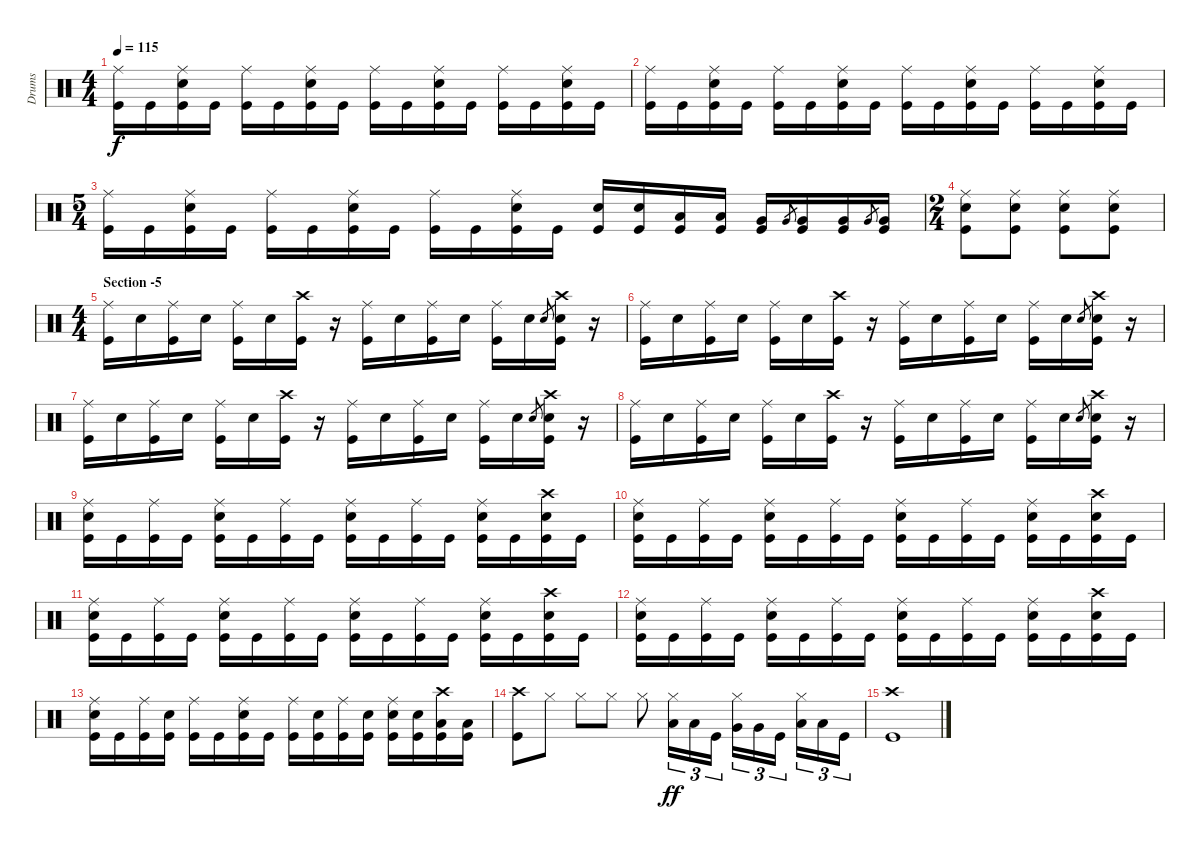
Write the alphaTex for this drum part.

\track ("Drums" "Drums") {instrument percussion}
\staff {score}
\articulation defaults
\ts (4 4)
\tempo 115
\clef neutral
\ks c
("Ride (middle)" "Kick (hit)").16{dy f} "Kick (hit)".16 ("Ride (middle)" "Electric Snare (hit)" "Kick (hit)").16 "Kick (hit)".16 ("Ride (middle)" "Kick (hit)").16 "Kick (hit)".16 ("Ride (middle)" "Electric Snare (hit)" "Kick (hit)").16 "Kick (hit)".16 ("Ride (middle)" "Kick (hit)").16 "Kick (hit)".16 ("Ride (middle)" "Electric Snare (hit)" "Kick (hit)").16 "Kick (hit)".16 ("Ride (middle)" "Kick (hit)").16 "Kick (hit)".16 ("Ride (middle)" "Electric Snare (hit)" "Kick (hit)").16 "Kick (hit)".16 |
("Ride (middle)" "Kick (hit)").16 "Kick (hit)".16 ("Ride (middle)" "Electric Snare (hit)" "Kick (hit)").16 "Kick (hit)".16 ("Ride (middle)" "Kick (hit)").16 "Kick (hit)".16 ("Ride (middle)" "Electric Snare (hit)" "Kick (hit)").16 "Kick (hit)".16 ("Ride (middle)" "Kick (hit)").16 "Kick (hit)".16 ("Ride (middle)" "Electric Snare (hit)" "Kick (hit)").16 "Kick (hit)".16 ("Ride (middle)" "Kick (hit)").16 "Kick (hit)".16 ("Ride (middle)" "Electric Snare (hit)" "Kick (hit)").16 "Kick (hit)".16 |
\ts (5 4)
("Ride (middle)" "Kick (hit)").16 "Kick (hit)".16 ("Ride (middle)" "Electric Snare (hit)" "Kick (hit)").16 "Kick (hit)".16 ("Ride (middle)" "Kick (hit)").16 "Kick (hit)".16 ("Ride (middle)" "Electric Snare (hit)" "Kick (hit)").16 "Kick (hit)".16 ("Ride (middle)" "Kick (hit)").16 "Kick (hit)".16 ("Ride (middle)" "Electric Snare (hit)" "Kick (hit)").16 "Kick (hit)".16 ("Electric Snare (hit)" "Kick (hit)").16 ("Electric Snare (hit)" "Kick (hit)").16 ("Low Tom (hit)" "Kick (hit)").16 ("Low Tom (hit)" "Kick (hit)").16 ("Very Low Tom (hit)" "Kick (hit)").16 "Very Low Tom (hit)".8{gr} ("Very Low Tom (hit)" "Kick (hit)").16 ("Very Low Tom (hit)" "Kick (hit)").16 "Very Low Tom (hit)".8{gr} ("Very Low Tom (hit)" "Kick (hit)").16 |
\ts (2 4)
("Ride (middle)" "Electric Snare (hit)" "Kick (hit)").8 ("Ride (middle)" "Electric Snare (hit)" "Kick (hit)").8 ("Ride (middle)" "Electric Snare (hit)" "Kick (hit)").8 ("Ride (middle)" "Electric Snare (hit)" "Kick (hit)").8 |
\ts (4 4)
\section ("" "Section -5")
("Ride (middle)" "Kick (hit)").16 "Electric Snare (hit)".16 ("Ride (middle)" "Kick (hit)").16 "Electric Snare (hit)".16 ("Ride (middle)" "Kick (hit)").16 "Electric Snare (hit)".16 ("Crash high (hit)" "Kick (hit)").16 r.16 ("Ride (middle)" "Kick (hit)").16 "Electric Snare (hit)".16 ("Ride (middle)" "Kick (hit)").16 "Electric Snare (hit)".16 ("Ride (middle)" "Kick (hit)").16 "Electric Snare (hit)".16 "Electric Snare (hit)".8{gr} ("Crash high (hit)" "Electric Snare (hit)" "Kick (hit)").16 r.16 |
("Ride (middle)" "Kick (hit)").16 "Electric Snare (hit)".16 ("Ride (middle)" "Kick (hit)").16 "Electric Snare (hit)".16 ("Ride (middle)" "Kick (hit)").16 "Electric Snare (hit)".16 ("Crash high (hit)" "Kick (hit)").16 r.16 ("Ride (middle)" "Kick (hit)").16 "Electric Snare (hit)".16 ("Ride (middle)" "Kick (hit)").16 "Electric Snare (hit)".16 ("Ride (middle)" "Kick (hit)").16 "Electric Snare (hit)".16 "Electric Snare (hit)".8{gr} ("Crash high (hit)" "Electric Snare (hit)" "Kick (hit)").16 r.16 |
("Ride (middle)" "Kick (hit)").16 "Electric Snare (hit)".16 ("Ride (middle)" "Kick (hit)").16 "Electric Snare (hit)".16 ("Ride (middle)" "Kick (hit)").16 "Electric Snare (hit)".16 ("Crash high (hit)" "Kick (hit)").16 r.16 ("Ride (middle)" "Kick (hit)").16 "Electric Snare (hit)".16 ("Ride (middle)" "Kick (hit)").16 "Electric Snare (hit)".16 ("Ride (middle)" "Kick (hit)").16 "Electric Snare (hit)".16 "Electric Snare (hit)".8{gr} ("Crash high (hit)" "Electric Snare (hit)" "Kick (hit)").16 r.16 |
("Ride (middle)" "Kick (hit)").16 "Electric Snare (hit)".16 ("Ride (middle)" "Kick (hit)").16 "Electric Snare (hit)".16 ("Ride (middle)" "Kick (hit)").16 "Electric Snare (hit)".16 ("Crash high (hit)" "Kick (hit)").16 r.16 ("Ride (middle)" "Kick (hit)").16 "Electric Snare (hit)".16 ("Ride (middle)" "Kick (hit)").16 "Electric Snare (hit)".16 ("Ride (middle)" "Kick (hit)").16 "Electric Snare (hit)".16 "Electric Snare (hit)".8{gr} ("Crash high (hit)" "Electric Snare (hit)" "Kick (hit)").16 r.16 |
("Ride (middle)" "Electric Snare (hit)" "Kick (hit)").16 "Kick (hit)".16 ("Ride (middle)" "Kick (hit)").16 "Kick (hit)".16 ("Ride (middle)" "Electric Snare (hit)" "Kick (hit)").16 "Kick (hit)".16 ("Ride (middle)" "Kick (hit)").16 "Kick (hit)".16 ("Ride (middle)" "Electric Snare (hit)" "Kick (hit)").16 "Kick (hit)".16 ("Ride (middle)" "Kick (hit)").16 "Kick (hit)".16 ("Ride (middle)" "Electric Snare (hit)" "Kick (hit)").16 "Kick (hit)".16 ("Crash high (hit)" "Electric Snare (hit)" "Kick (hit)").16 "Kick (hit)".16 |
("Ride (middle)" "Electric Snare (hit)" "Kick (hit)").16 "Kick (hit)".16 ("Ride (middle)" "Kick (hit)").16 "Kick (hit)".16 ("Ride (middle)" "Electric Snare (hit)" "Kick (hit)").16 "Kick (hit)".16 ("Ride (middle)" "Kick (hit)").16 "Kick (hit)".16 ("Ride (middle)" "Electric Snare (hit)" "Kick (hit)").16 "Kick (hit)".16 ("Ride (middle)" "Kick (hit)").16 "Kick (hit)".16 ("Ride (middle)" "Electric Snare (hit)" "Kick (hit)").16 "Kick (hit)".16 ("Crash high (hit)" "Electric Snare (hit)" "Kick (hit)").16 "Kick (hit)".16 |
("Ride (middle)" "Electric Snare (hit)" "Kick (hit)").16 "Kick (hit)".16 ("Ride (middle)" "Kick (hit)").16 "Kick (hit)".16 ("Ride (middle)" "Electric Snare (hit)" "Kick (hit)").16 "Kick (hit)".16 ("Ride (middle)" "Kick (hit)").16 "Kick (hit)".16 ("Ride (middle)" "Electric Snare (hit)" "Kick (hit)").16 "Kick (hit)".16 ("Ride (middle)" "Kick (hit)").16 "Kick (hit)".16 ("Ride (middle)" "Electric Snare (hit)" "Kick (hit)").16 "Kick (hit)".16 ("Crash high (hit)" "Electric Snare (hit)" "Kick (hit)").16 "Kick (hit)".16 |
("Ride (middle)" "Electric Snare (hit)" "Kick (hit)").16 "Kick (hit)".16 ("Ride (middle)" "Kick (hit)").16 "Kick (hit)".16 ("Ride (middle)" "Electric Snare (hit)" "Kick (hit)").16 "Kick (hit)".16 ("Ride (middle)" "Kick (hit)").16 "Kick (hit)".16 ("Ride (middle)" "Electric Snare (hit)" "Kick (hit)").16 "Kick (hit)".16 ("Ride (middle)" "Kick (hit)").16 "Kick (hit)".16 ("Ride (middle)" "Electric Snare (hit)" "Kick (hit)").16 "Kick (hit)".16 ("Crash high (hit)" "Electric Snare (hit)" "Kick (hit)").16 "Kick (hit)".16 |
("Ride (middle)" "Electric Snare (hit)" "Kick (hit)").16 "Kick (hit)".16 ("Ride (middle)" "Kick (hit)").16 ("Electric Snare (hit)" "Kick (hit)").16 ("Ride (middle)" "Kick (hit)").16 "Kick (hit)".16 ("Ride (middle)" "Electric Snare (hit)" "Kick (hit)").16 "Kick (hit)".16 ("Ride (middle)" "Kick (hit)").16 ("Electric Snare (hit)" "Kick (hit)").16 ("Ride (middle)" "Kick (hit)").16 ("Electric Snare (hit)" "Kick (hit)").16 ("Ride (middle)" "Electric Snare (hit)" "Kick (hit)").16 ("Electric Snare (hit)" "Kick (hit)").16 ("Crash high (hit)" "Low Floor Tom (hit)" "Kick (hit)").16 ("Low Floor Tom (hit)" "Kick (hit)").16 |
("Crash high (hit)" "Kick (hit)").8 "Hi-Hat (closed)".8 "Hi-Hat (closed)".8 "Hi-Hat (closed)".8 "Hi-Hat (closed)".8 ("Hi-Hat (closed)" "Low Tom (hit)").16{tu (3 2) dy ff} "Low Tom (hit)".16{tu (3 2)} "Kick (hit)".16{tu (3 2)} ("Hi-Hat (closed)" "Very Low Tom (hit)").16{tu (3 2)} "Very Low Tom (hit)".16{tu (3 2)} "Kick (hit)".16{tu (3 2)} ("Hi-Hat (closed)" "Low Floor Tom (hit)").16{tu (3 2)} "Low Floor Tom (hit)".16{tu (3 2)} "Kick (hit)".16{tu (3 2)} |
("Crash high (hit)" "Kick (hit)").1
